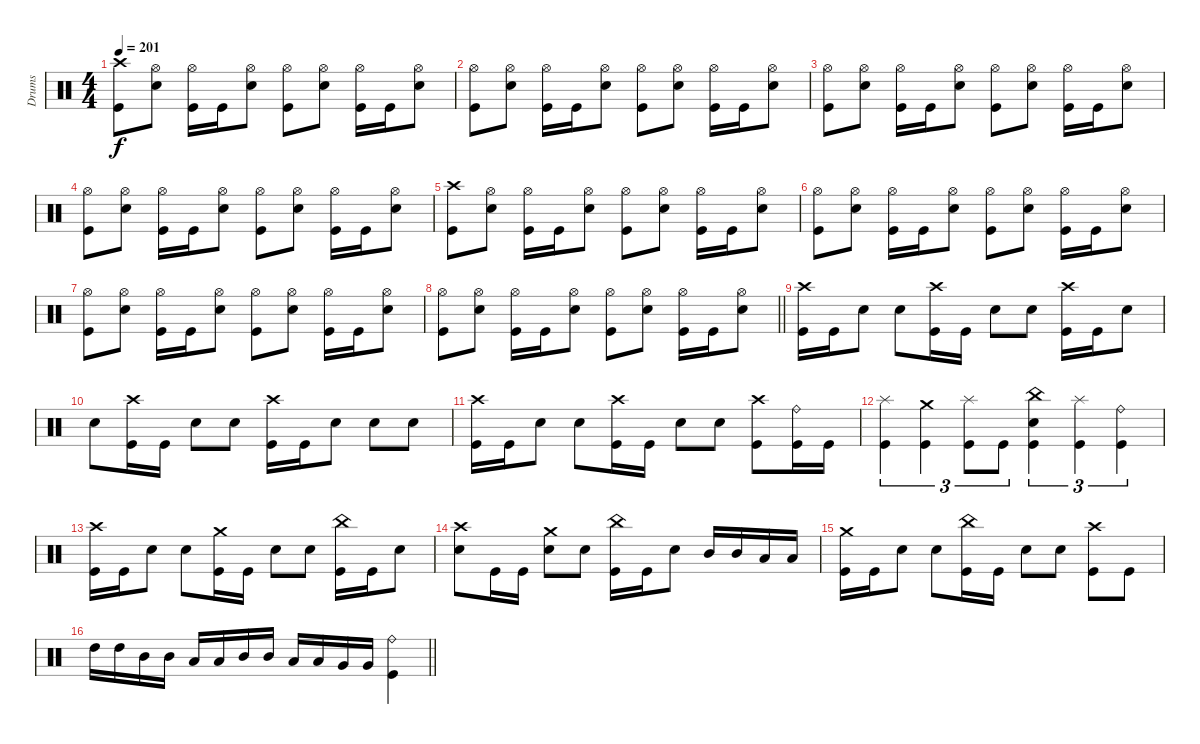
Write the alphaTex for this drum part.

\track ("Drums" "Drums") {instrument percussion}
\staff
\articulation defaults
\ts (4 4)
\tempo 201
\clef neutral
\ks c
("Crash high (hit)" "Kick (hit)").8{dy f} ("Hi-Hat (open)" "Electric Snare (hit)").8 ("Hi-Hat (open)" "Kick (hit)").16 "Kick (hit)".16 ("Hi-Hat (open)" "Electric Snare (hit)").8 ("Hi-Hat (open)" "Kick (hit)").8 ("Hi-Hat (open)" "Electric Snare (hit)").8 ("Hi-Hat (open)" "Kick (hit)").16 "Kick (hit)".16 ("Hi-Hat (open)" "Electric Snare (hit)").8 |
("Hi-Hat (open)" "Kick (hit)").8 ("Hi-Hat (open)" "Electric Snare (hit)").8 ("Hi-Hat (open)" "Kick (hit)").16 "Kick (hit)".16 ("Hi-Hat (open)" "Electric Snare (hit)").8 ("Hi-Hat (open)" "Kick (hit)").8 ("Hi-Hat (open)" "Electric Snare (hit)").8 ("Hi-Hat (open)" "Kick (hit)").16 "Kick (hit)".16 ("Hi-Hat (open)" "Electric Snare (hit)").8 |
("Hi-Hat (open)" "Kick (hit)").8 ("Hi-Hat (open)" "Electric Snare (hit)").8 ("Hi-Hat (open)" "Kick (hit)").16 "Kick (hit)".16 ("Hi-Hat (open)" "Electric Snare (hit)").8 ("Hi-Hat (open)" "Kick (hit)").8 ("Hi-Hat (open)" "Electric Snare (hit)").8 ("Hi-Hat (open)" "Kick (hit)").16 "Kick (hit)".16 ("Hi-Hat (open)" "Electric Snare (hit)").8 |
("Hi-Hat (open)" "Kick (hit)").8 ("Hi-Hat (open)" "Electric Snare (hit)").8 ("Hi-Hat (open)" "Kick (hit)").16 "Kick (hit)".16 ("Hi-Hat (open)" "Electric Snare (hit)").8 ("Hi-Hat (open)" "Kick (hit)").8 ("Hi-Hat (open)" "Electric Snare (hit)").8 ("Hi-Hat (open)" "Kick (hit)").16 "Kick (hit)".16 ("Hi-Hat (open)" "Electric Snare (hit)").8 |
("Crash high (hit)" "Kick (hit)").8 ("Hi-Hat (open)" "Electric Snare (hit)").8 ("Hi-Hat (open)" "Kick (hit)").16 "Kick (hit)".16 ("Hi-Hat (open)" "Electric Snare (hit)").8 ("Hi-Hat (open)" "Kick (hit)").8 ("Hi-Hat (open)" "Electric Snare (hit)").8 ("Hi-Hat (open)" "Kick (hit)").16 "Kick (hit)".16 ("Hi-Hat (open)" "Electric Snare (hit)").8 |
("Hi-Hat (open)" "Kick (hit)").8 ("Hi-Hat (open)" "Electric Snare (hit)").8 ("Hi-Hat (open)" "Kick (hit)").16 "Kick (hit)".16 ("Hi-Hat (open)" "Electric Snare (hit)").8 ("Hi-Hat (open)" "Kick (hit)").8 ("Hi-Hat (open)" "Electric Snare (hit)").8 ("Hi-Hat (open)" "Kick (hit)").16 "Kick (hit)".16 ("Hi-Hat (open)" "Electric Snare (hit)").8 |
("Hi-Hat (open)" "Kick (hit)").8 ("Hi-Hat (open)" "Electric Snare (hit)").8 ("Hi-Hat (open)" "Kick (hit)").16 "Kick (hit)".16 ("Hi-Hat (open)" "Electric Snare (hit)").8 ("Hi-Hat (open)" "Kick (hit)").8 ("Hi-Hat (open)" "Electric Snare (hit)").8 ("Hi-Hat (open)" "Kick (hit)").16 "Kick (hit)".16 ("Hi-Hat (open)" "Electric Snare (hit)").8 |
\barLineRight lightlight
("Hi-Hat (open)" "Kick (hit)").8 ("Hi-Hat (open)" "Electric Snare (hit)").8 ("Hi-Hat (open)" "Kick (hit)").16 "Kick (hit)".16 ("Hi-Hat (open)" "Electric Snare (hit)").8 ("Hi-Hat (open)" "Kick (hit)").8 ("Hi-Hat (open)" "Electric Snare (hit)").8 ("Hi-Hat (open)" "Kick (hit)").16 "Kick (hit)".16 ("Hi-Hat (open)" "Electric Snare (hit)").8 |
\section ("" "")
("Crash high (hit)" "Kick (hit)").16 "Kick (hit)".16 "Electric Snare (hit)".8 "Electric Snare (hit)".8 ("Crash high (hit)" "Kick (hit)").16 "Kick (hit)".16 "Electric Snare (hit)".8 "Electric Snare (hit)".8 ("Crash high (hit)" "Kick (hit)").16 "Kick (hit)".16 "Electric Snare (hit)".8 |
"Electric Snare (hit)".8 ("Crash high (hit)" "Kick (hit)").16 "Kick (hit)".16 "Electric Snare (hit)".8 "Electric Snare (hit)".8 ("Crash high (hit)" "Kick (hit)").16 "Kick (hit)".16 "Electric Snare (hit)".8 "Electric Snare (hit)".8 "Electric Snare (hit)".8 |
("Crash high (hit)" "Kick (hit)").16 "Kick (hit)".16 "Electric Snare (hit)".8 "Electric Snare (hit)".8 ("Crash high (hit)" "Kick (hit)").16 "Kick (hit)".16 "Electric Snare (hit)".8 "Electric Snare (hit)".8 ("Crash high (hit)" "Kick (hit)").8 ("Ride (bell)" "Kick (hit)").16 "Kick (hit)".16 |
("Splash (hit)" "Kick (hit)").4{tu (3 2)} ("Crash medium (hit)" "Kick (hit)").4{tu (3 2)} ("Splash (hit)" "Kick (hit)").8{tu (3 2)} "Kick (hit)".8{tu (3 2)} ("China (hit)" "Electric Snare (hit)" "Kick (hit)").4{tu (3 2)} ("Splash (hit)" "Kick (hit)").4{tu (3 2)} ("Ride (bell)" "Kick (hit)").4{tu (3 2)} |
("Crash high (hit)" "Kick (hit)").16 "Kick (hit)".16 "Electric Snare (hit)".8 "Electric Snare (hit)".8 ("Crash medium (hit)" "Kick (hit)").16 "Kick (hit)".16 "Electric Snare (hit)".8 "Electric Snare (hit)".8 ("China (hit)" "Kick (hit)").16 "Kick (hit)".16 "Electric Snare (hit)".8 |
("Crash high (hit)" "Electric Snare (hit)").8 "Kick (hit)".16 "Kick (hit)".16 ("Crash medium (hit)" "Electric Snare (hit)").8 "Electric Snare (hit)".8 ("China (hit)" "Kick (hit)").16 "Kick (hit)".16 "Electric Snare (hit)".8 "Mid Tom (hit)".16 "Mid Tom (hit)".16 "Low Tom (hit)".16 "Low Tom (hit)".16 |
("Crash medium (hit)" "Kick (hit)").16 "Kick (hit)".16 "Electric Snare (hit)".8 "Electric Snare (hit)".8 ("China (hit)" "Kick (hit)").16 "Kick (hit)".16 "Electric Snare (hit)".8 "Electric Snare (hit)".8 ("Crash high (hit)" "Kick (hit)").8 "Kick (hit)".8 |
\barLineRight lightlight "High Tom (hit)".16 "High Tom (hit)".16 "Mid Tom (hit)".16 "Mid Tom (hit)".16 "Low Tom (hit)".16 "Low Tom (hit)".16 "Mid Tom (hit)".16 "Mid Tom (hit)".16 "Low Tom (hit)".16 "Low Tom (hit)".16 "Very Low Tom (hit)".16 "Very Low Tom (hit)".16
("Ride (bell)" "Kick (hit)").4
